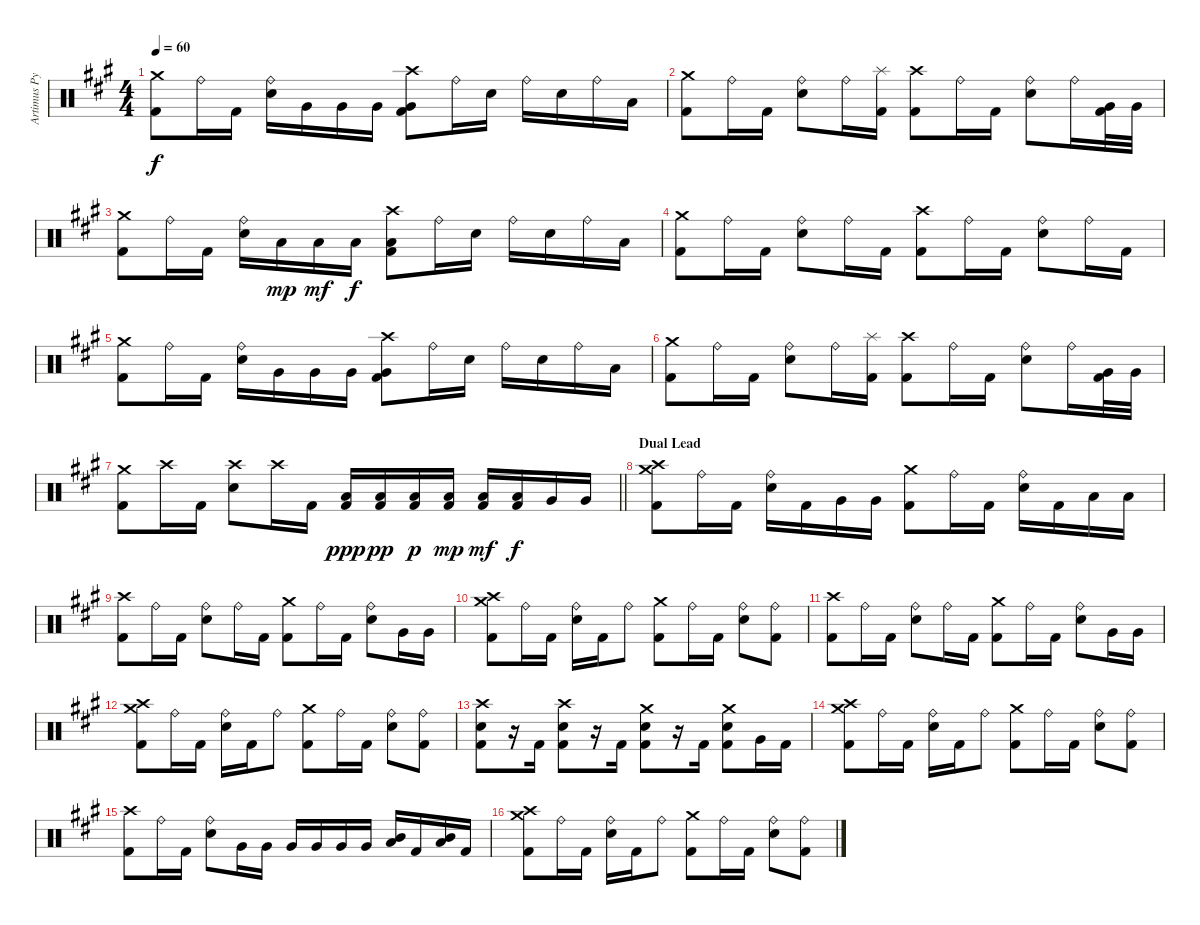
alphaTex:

\track ("Artimus Pyle - Drums" "Artimus Py") {instrument percussion}
\staff {score}
\articulation defaults
\ts (4 4)
\tempo 60
\clef neutral
\ks f#minor
("Crash medium (hit)" "Kick (hit) 2").8{dy f} "Ride (bell)".16 "Kick (hit) 2".16 ("Ride (bell)" "Snare (hit) 2").16 "Very Low Tom (hit)".16 "Very Low Tom (hit)".16 "Very Low Tom (hit)".16 ("Crash high (hit)" "Very Low Tom (hit)" "Kick (hit) 2").8 "Ride (bell)".16 "Snare (hit) 2".16 "Ride (bell)".16 "Snare (hit) 2".16 "Ride (bell)".16 "Low Floor Tom (hit)".16 |
("Crash medium (hit)" "Kick (hit) 2").8 "Ride (bell)".16 "Kick (hit) 2".16 ("Ride (bell)" "Snare (hit) 2").8 "Ride (bell)".16 ("Splash (hit)" "Kick (hit) 2").16 ("Crash high (hit)" "Kick (hit) 2").8 "Ride (bell)".16 "Kick (hit) 2".16 ("Ride (bell)" "Snare (hit) 2").8 "Ride (bell)".16 ("Very Low Tom (hit)" "Kick (hit) 2").32 "Very Low Tom (hit)".32 |
("Crash medium (hit)" "Kick (hit) 2").8 "Ride (bell)".16 "Kick (hit) 2".16 ("Ride (bell)" "Snare (hit) 2").16 "Low Floor Tom (hit)".16{dy mp} "Low Floor Tom (hit)".16{dy mf} "Low Floor Tom (hit)".16{dy f} ("Crash high (hit)" "Low Floor Tom (hit)" "Kick (hit) 2").8 "Ride (bell)".16 "Snare (hit) 2".16 "Ride (bell)".16 "Snare (hit) 2".16 "Ride (bell)".16 "Low Floor Tom (hit)".16 |
("Crash medium (hit)" "Kick (hit) 2").8 "Ride (bell)".16 "Kick (hit) 2".16 ("Ride (bell)" "Snare (hit) 2").8 "Ride (bell)".16 "Kick (hit) 2".16 ("Crash high (hit)" "Kick (hit) 2").8 "Ride (bell)".16 "Kick (hit) 2".16 ("Ride (bell)" "Snare (hit) 2").8 "Ride (bell)".16 "Kick (hit) 2".16 |
("Crash medium (hit)" "Kick (hit) 2").8 "Ride (bell)".16 "Kick (hit) 2".16 ("Ride (bell)" "Snare (hit) 2").16 "Very Low Tom (hit)".16 "Very Low Tom (hit)".16 "Very Low Tom (hit)".16 ("Crash high (hit)" "Very Low Tom (hit)" "Kick (hit) 2").8 "Ride (bell)".16 "Snare (hit) 2".16 "Ride (bell)".16 "Snare (hit) 2".16 "Ride (bell)".16 "Low Floor Tom (hit)".16 |
("Crash medium (hit)" "Kick (hit) 2").8 "Ride (bell)".16 "Kick (hit) 2".16 ("Ride (bell)" "Snare (hit) 2").8 "Ride (bell)".16 ("Splash (hit)" "Kick (hit) 2").16 ("Crash high (hit)" "Kick (hit) 2").8 "Ride (bell)".16 "Kick (hit) 2".16 ("Ride (bell)" "Snare (hit) 2").8 "Ride (bell)".16 ("Very Low Tom (hit)" "Kick (hit) 2").32 "Very Low Tom (hit)".32 |
\barLineRight lightlight
("Crash medium (hit)" "Kick (hit) 2").8 "Crash high (hit)".16 "Kick (hit) 2".16 ("Crash high (hit)" "Snare (hit) 2").8 "Crash high (hit)".16 "Kick (hit) 2".16 ("Low Tom (hit)" "Kick (hit) 2").16{dy ppp} ("Low Tom (hit)" "Kick (hit) 2").16{dy pp} ("Low Tom (hit)" "Kick (hit) 2").16{dy p} ("Low Tom (hit)" "Kick (hit) 2").16{dy mp} ("Low Tom (hit)" "Kick (hit) 2").16{dy mf} ("Low Tom (hit)" "Kick (hit) 2").16{dy f} "Very Low Tom (hit)".16 "Very Low Tom (hit)".16 |
\section ("" "Dual Lead")
("Crash high (hit)" "Crash medium (hit)" "Kick (hit) 2").8 "Ride (bell)".16 "Kick (hit) 2".16 ("Ride (bell)" "Snare (hit) 2").16 "Kick (hit) 2".16 "Very Low Tom (hit)".16 "Very Low Tom (hit)".16 ("Crash medium (hit)" "Kick (hit) 2").8 "Ride (bell)".16 "Kick (hit) 2".16 ("Ride (bell)" "Snare (hit) 2").16 "Kick (hit) 2".16 "Low Floor Tom (hit)".16 "Low Floor Tom (hit)".16 |
("Crash high (hit)" "Kick (hit) 2").8 "Ride (bell)".16 "Kick (hit) 2".16 ("Ride (bell)" "Snare (hit) 2").8 "Ride (bell)".16 "Kick (hit) 2".16 ("Crash medium (hit)" "Kick (hit) 2").8 "Ride (bell)".16 "Kick (hit) 2".16 ("Ride (bell)" "Snare (hit) 2").8 "Very Low Tom (hit)".16 "Very Low Tom (hit)".16 |
("Crash high (hit)" "Crash medium (hit)" "Kick (hit) 2").8 "Ride (bell)".16 "Kick (hit) 2".16 ("Ride (bell)" "Snare (hit) 2").16 "Kick (hit) 2".16 "Ride (bell)".8 ("Crash medium (hit)" "Kick (hit) 2").8 "Ride (bell)".16 "Kick (hit) 2".16 ("Ride (bell)" "Snare (hit) 2").8 ("Ride (bell)" "Kick (hit) 2").8 |
("Crash high (hit)" "Kick (hit) 2").8 "Ride (bell)".16 "Kick (hit) 2".16 ("Ride (bell)" "Snare (hit) 2").8 "Ride (bell)".16 "Kick (hit) 2".16 ("Crash medium (hit)" "Kick (hit) 2").8 "Ride (bell)".16 "Kick (hit) 2".16 ("Ride (bell)" "Snare (hit) 2").8 "Very Low Tom (hit)".16 "Very Low Tom (hit)".16 |
("Crash high (hit)" "Crash medium (hit)" "Kick (hit) 2").8 "Ride (bell)".16 "Kick (hit) 2".16 ("Ride (bell)" "Snare (hit) 2").16 "Kick (hit) 2".16 "Ride (bell)".8 ("Crash medium (hit)" "Kick (hit) 2").8 "Ride (bell)".16 "Kick (hit) 2".16 ("Ride (bell)" "Snare (hit) 2").8 ("Ride (bell)" "Kick (hit) 2").8 |
("Crash high (hit)" "Snare (hit) 2" "Kick (hit) 2").8 r.16 "Kick (hit) 2".16 ("Crash high (hit)" "Snare (hit) 2" "Kick (hit) 2").8 r.16 "Kick (hit) 2".16 ("Crash medium (hit)" "Snare (hit) 2" "Kick (hit) 2").8 r.16 "Kick (hit) 2".16 ("Crash medium (hit)" "Snare (hit) 2" "Kick (hit) 2").8 "Very Low Tom (hit)".16 "Kick (hit) 2".16 |
("Crash high (hit)" "Crash medium (hit)" "Kick (hit) 2").8 "Ride (bell)".16 "Kick (hit) 2".16 ("Ride (bell)" "Snare (hit) 2").16 "Kick (hit) 2".16 "Ride (bell)".8 ("Crash medium (hit)" "Kick (hit) 2").8 "Ride (bell)".16 "Kick (hit) 2".16 ("Ride (bell)" "Snare (hit) 2").8 ("Ride (bell)" "Kick (hit) 2").8 |
("Crash high (hit)" "Kick (hit) 2").8 "Ride (bell)".16 "Kick (hit) 2".16 ("Ride (bell)" "Snare (hit) 2").8 "Very Low Tom (hit)".16 "Very Low Tom (hit)".16 "Very Low Tom (hit)".16 "Very Low Tom (hit)".16 "Very Low Tom (hit)".16 "Very Low Tom (hit)".16 ("Mid Tom (hit)" "Low Tom (hit)").16 "Kick (hit) 2".16 ("Mid Tom (hit)" "Low Tom (hit)").16 "Kick (hit) 2".16 |
("Crash high (hit)" "Crash medium (hit)" "Kick (hit) 2").8 "Ride (bell)".16 "Kick (hit) 2".16 ("Ride (bell)" "Snare (hit) 2").16 "Kick (hit) 2".16 "Ride (bell)".8 ("Crash medium (hit)" "Kick (hit) 2").8 "Ride (bell)".16 "Kick (hit) 2".16 ("Ride (bell)" "Snare (hit) 2").8 ("Ride (bell)" "Kick (hit) 2").8
